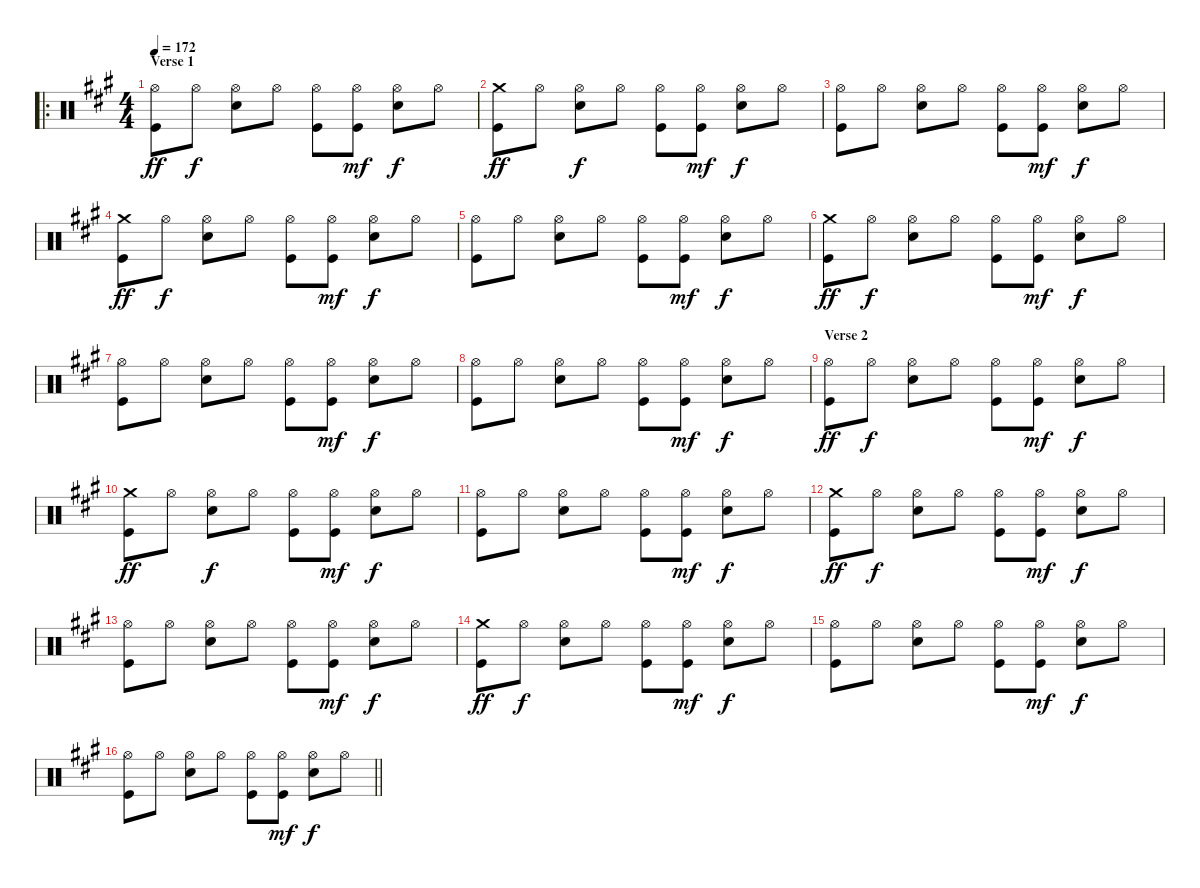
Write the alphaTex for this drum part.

\bracketExtendMode nobrackets
\singleTrackTrackNamePolicy hidden
\multiTrackTrackNamePolicy hidden
\firstSystemTrackNameOrientation horizontal
\otherSystemsTrackNameOrientation horizontal
\track ("Drumkit" "Drumkit") {instrument percussion}
\staff {score}
\articulation defaults
\ro
\ts (4 4)
\section ("" "Verse 1")
\tempo 172
\clef neutral
\ks a
("Kick (hit)" "Hi-Hat (open)").8{dy ff} "Hi-Hat (open)".8{dy f} ("Hi-Hat (open)" "Snare (hit) 2").8 "Hi-Hat (open)".8 ("Hi-Hat (open)" "Kick (hit)").8 ("Hi-Hat (open)" "Kick (hit)").8{dy mf} ("Hi-Hat (open)" "Snare (hit) 2").8{dy f} "Hi-Hat (open)".8 |
("Kick (hit)" "Crash medium (hit)").8{dy ff} "Hi-Hat (open)".8 ("Hi-Hat (open)" "Snare (hit) 2").8{dy f} "Hi-Hat (open)".8 ("Hi-Hat (open)" "Kick (hit)").8 ("Hi-Hat (open)" "Kick (hit)").8{dy mf} ("Hi-Hat (open)" "Snare (hit) 2").8{dy f} "Hi-Hat (open)".8 |
("Kick (hit)" "Hi-Hat (open)").8 "Hi-Hat (open)".8 ("Hi-Hat (open)" "Snare (hit) 2").8 "Hi-Hat (open)".8 ("Hi-Hat (open)" "Kick (hit)").8 ("Hi-Hat (open)" "Kick (hit)").8{dy mf} ("Hi-Hat (open)" "Snare (hit) 2").8{dy f} "Hi-Hat (open)".8 |
("Kick (hit)" "Crash medium (hit)").8{dy ff} "Hi-Hat (open)".8{dy f} ("Hi-Hat (open)" "Snare (hit) 2").8 "Hi-Hat (open)".8 ("Hi-Hat (open)" "Kick (hit)").8 ("Hi-Hat (open)" "Kick (hit)").8{dy mf} ("Hi-Hat (open)" "Snare (hit) 2").8{dy f} "Hi-Hat (open)".8 |
("Kick (hit)" "Hi-Hat (open)").8 "Hi-Hat (open)".8 ("Hi-Hat (open)" "Snare (hit) 2").8 "Hi-Hat (open)".8 ("Hi-Hat (open)" "Kick (hit)").8 ("Hi-Hat (open)" "Kick (hit)").8{dy mf} ("Hi-Hat (open)" "Snare (hit) 2").8{dy f} "Hi-Hat (open)".8 |
("Kick (hit)" "Crash medium (hit)").8{dy ff} "Hi-Hat (open)".8{dy f} ("Hi-Hat (open)" "Snare (hit) 2").8 "Hi-Hat (open)".8 ("Hi-Hat (open)" "Kick (hit)").8 ("Hi-Hat (open)" "Kick (hit)").8{dy mf} ("Hi-Hat (open)" "Snare (hit) 2").8{dy f} "Hi-Hat (open)".8 |
("Kick (hit)" "Hi-Hat (open)").8 "Hi-Hat (open)".8 ("Hi-Hat (open)" "Snare (hit) 2").8 "Hi-Hat (open)".8 ("Hi-Hat (open)" "Kick (hit)").8 ("Hi-Hat (open)" "Kick (hit)").8{dy mf} ("Hi-Hat (open)" "Snare (hit) 2").8{dy f} "Hi-Hat (open)".8 |
("Kick (hit)" "Hi-Hat (open)").8 "Hi-Hat (open)".8 ("Hi-Hat (open)" "Snare (hit) 2").8 "Hi-Hat (open)".8 ("Hi-Hat (open)" "Kick (hit)").8 ("Hi-Hat (open)" "Kick (hit)").8{dy mf} ("Hi-Hat (open)" "Snare (hit) 2").8{dy f} "Hi-Hat (open)".8 |
\section ("" "Verse 2")
("Kick (hit)" "Hi-Hat (open)").8{dy ff} "Hi-Hat (open)".8{dy f} ("Hi-Hat (open)" "Snare (hit) 2").8 "Hi-Hat (open)".8 ("Hi-Hat (open)" "Kick (hit)").8 ("Hi-Hat (open)" "Kick (hit)").8{dy mf} ("Hi-Hat (open)" "Snare (hit) 2").8{dy f} "Hi-Hat (open)".8 |
("Kick (hit)" "Crash medium (hit)").8{dy ff} "Hi-Hat (open)".8 ("Hi-Hat (open)" "Snare (hit) 2").8{dy f} "Hi-Hat (open)".8 ("Hi-Hat (open)" "Kick (hit)").8 ("Hi-Hat (open)" "Kick (hit)").8{dy mf} ("Hi-Hat (open)" "Snare (hit) 2").8{dy f} "Hi-Hat (open)".8 |
("Kick (hit)" "Hi-Hat (open)").8 "Hi-Hat (open)".8 ("Hi-Hat (open)" "Snare (hit) 2").8 "Hi-Hat (open)".8 ("Hi-Hat (open)" "Kick (hit)").8 ("Hi-Hat (open)" "Kick (hit)").8{dy mf} ("Hi-Hat (open)" "Snare (hit) 2").8{dy f} "Hi-Hat (open)".8 |
("Kick (hit)" "Crash medium (hit)").8{dy ff} "Hi-Hat (open)".8{dy f} ("Hi-Hat (open)" "Snare (hit) 2").8 "Hi-Hat (open)".8 ("Hi-Hat (open)" "Kick (hit)").8 ("Hi-Hat (open)" "Kick (hit)").8{dy mf} ("Hi-Hat (open)" "Snare (hit) 2").8{dy f} "Hi-Hat (open)".8 |
("Kick (hit)" "Hi-Hat (open)").8 "Hi-Hat (open)".8 ("Hi-Hat (open)" "Snare (hit) 2").8 "Hi-Hat (open)".8 ("Hi-Hat (open)" "Kick (hit)").8 ("Hi-Hat (open)" "Kick (hit)").8{dy mf} ("Hi-Hat (open)" "Snare (hit) 2").8{dy f} "Hi-Hat (open)".8 |
("Kick (hit)" "Crash medium (hit)").8{dy ff} "Hi-Hat (open)".8{dy f} ("Hi-Hat (open)" "Snare (hit) 2").8 "Hi-Hat (open)".8 ("Hi-Hat (open)" "Kick (hit)").8 ("Hi-Hat (open)" "Kick (hit)").8{dy mf} ("Hi-Hat (open)" "Snare (hit) 2").8{dy f} "Hi-Hat (open)".8 |
("Kick (hit)" "Hi-Hat (open)").8 "Hi-Hat (open)".8 ("Hi-Hat (open)" "Snare (hit) 2").8 "Hi-Hat (open)".8 ("Hi-Hat (open)" "Kick (hit)").8 ("Hi-Hat (open)" "Kick (hit)").8{dy mf} ("Hi-Hat (open)" "Snare (hit) 2").8{dy f} "Hi-Hat (open)".8 |
\barLineRight lightlight
("Kick (hit)" "Hi-Hat (open)").8 "Hi-Hat (open)".8 ("Hi-Hat (open)" "Snare (hit) 2").8 "Hi-Hat (open)".8 ("Hi-Hat (open)" "Kick (hit)").8 ("Hi-Hat (open)" "Kick (hit)").8{dy mf} ("Hi-Hat (open)" "Snare (hit) 2").8{dy f} "Hi-Hat (open)".8
